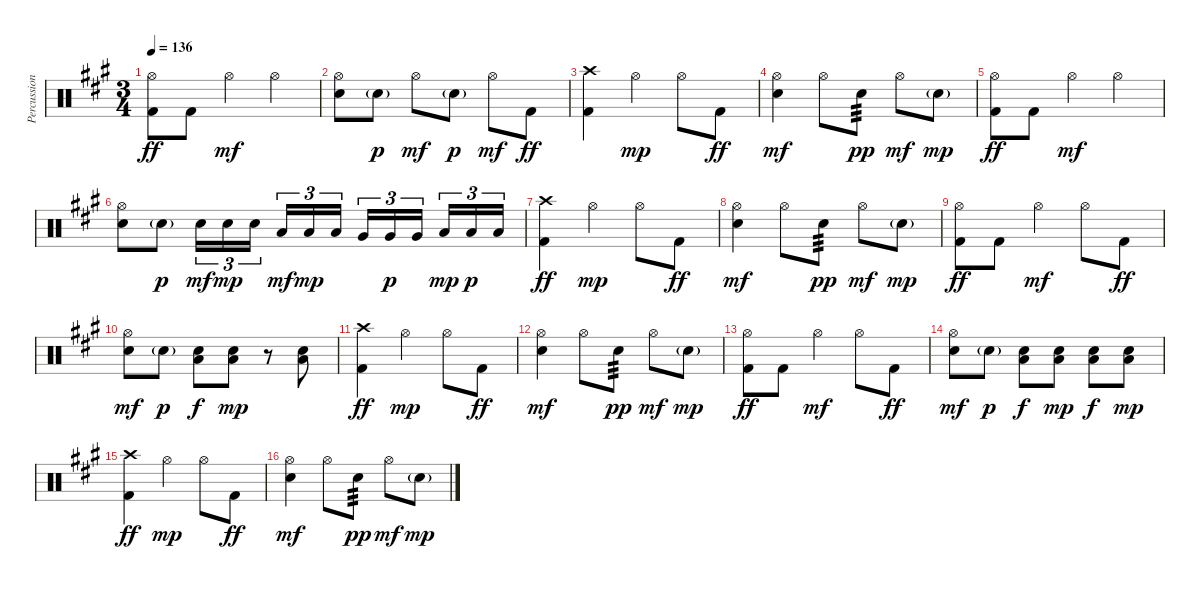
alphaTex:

\track ("Percussion" "Percussion") {solo instrument percussion}
\staff {score}
\articulation defaults
\ts (3 4)
\tempo 136
\clef neutral
\ks a
("Hi-Hat (open)" "Kick (hit) 2").8{dy ff} "Kick (hit) 2".8 "Hi-Hat (open)".4{dy mf} "Hi-Hat (open)".4 |
("Hi-Hat (open)" "Snare (hit) 2").8 "Snare (hit) 2"{g}.8{dy p} "Hi-Hat (open)".8{dy mf} "Snare (hit) 2"{g}.8{dy p} "Hi-Hat (open)".8{dy mf} "Kick (hit) 2".8{dy ff} |
("Crash high (hit)" "Kick (hit) 2").4 "Hi-Hat (open)".4{dy mp} "Hi-Hat (open)".8 "Kick (hit) 2".8{dy ff} |
("Hi-Hat (open)" "Snare (hit) 2").4{dy mf} "Hi-Hat (open)".8 "Snare (hit) 2".8{tp 3 dy pp} "Hi-Hat (open)".8{dy mf} "Snare (hit) 2"{g}.8{dy mp} |
("Hi-Hat (open)" "Kick (hit) 2").8{dy ff} "Kick (hit) 2".8 "Hi-Hat (open)".4{dy mf} "Hi-Hat (open)".4 |
("Hi-Hat (open)" "Snare (hit) 2").8 "Snare (hit) 2"{g}.8{dy p} "Snare (hit) 2".16{tu (3 2) dy mf} "Snare (hit) 2".16{tu (3 2) dy mp} "Snare (hit) 2".16{tu (3 2) beam splitsecondary} "Low Tom (hit)".16{tu (3 2) dy mf} "Low Tom (hit)".16{tu (3 2) dy mp} "Low Tom (hit)".16{tu (3 2)} "Very Low Tom (hit)".16{tu (3 2)} "Very Low Tom (hit)".16{tu (3 2) dy p} "Very Low Tom (hit)".16{tu (3 2) beam splitsecondary} "Low Floor Tom (hit)".16{tu (3 2) dy mp} "Low Floor Tom (hit)".16{tu (3 2) dy p} "Low Floor Tom (hit)".16{tu (3 2)} |
("Crash high (hit)" "Kick (hit) 2").4{dy ff} "Hi-Hat (open)".4{dy mp} "Hi-Hat (open)".8 "Kick (hit) 2".8{dy ff} |
("Hi-Hat (open)" "Snare (hit) 2").4{dy mf} "Hi-Hat (open)".8 "Snare (hit) 2".8{tp 3 dy pp} "Hi-Hat (open)".8{dy mf} "Snare (hit) 2"{g}.8{dy mp} |
("Hi-Hat (open)" "Kick (hit) 2").8{dy ff} "Kick (hit) 2".8 "Hi-Hat (open)".4{dy mf} "Hi-Hat (open)".8 "Kick (hit) 2".8{dy ff} |
("Hi-Hat (open)" "Snare (hit) 2").8{dy mf} "Snare (hit) 2"{g}.8{dy p} ("Low Floor Tom (hit)" "Snare (hit) 2").8{dy f} ("Low Floor Tom (hit)" "Snare (hit) 2").8{dy mp} r.8 ("Low Floor Tom (hit)" "Snare (hit) 2").8 |
("Crash high (hit)" "Kick (hit) 2").4{dy ff} "Hi-Hat (open)".4{dy mp} "Hi-Hat (open)".8 "Kick (hit) 2".8{dy ff} |
("Hi-Hat (open)" "Snare (hit) 2").4{dy mf} "Hi-Hat (open)".8 "Snare (hit) 2".8{tp 3 dy pp} "Hi-Hat (open)".8{dy mf} "Snare (hit) 2"{g}.8{dy mp} |
("Hi-Hat (open)" "Kick (hit) 2").8{dy ff} "Kick (hit) 2".8 "Hi-Hat (open)".4{dy mf} "Hi-Hat (open)".8 "Kick (hit) 2".8{dy ff} |
("Hi-Hat (open)" "Snare (hit) 2").8{dy mf} "Snare (hit) 2"{g}.8{dy p} ("Low Tom (hit)" "Snare (hit) 2").8{dy f} ("Low Tom (hit)" "Snare (hit) 2").8{dy mp} ("Low Floor Tom (hit)" "Snare (hit) 2").8{dy f} ("Low Floor Tom (hit)" "Snare (hit) 2").8{dy mp} |
("Crash high (hit)" "Kick (hit) 2").4{dy ff} "Hi-Hat (open)".4{dy mp} "Hi-Hat (open)".8 "Kick (hit) 2".8{dy ff} |
("Hi-Hat (open)" "Snare (hit) 2").4{dy mf} "Hi-Hat (open)".8 "Snare (hit) 2".8{tp 3 dy pp} "Hi-Hat (open)".8{dy mf} "Snare (hit) 2"{g}.8{dy mp}
